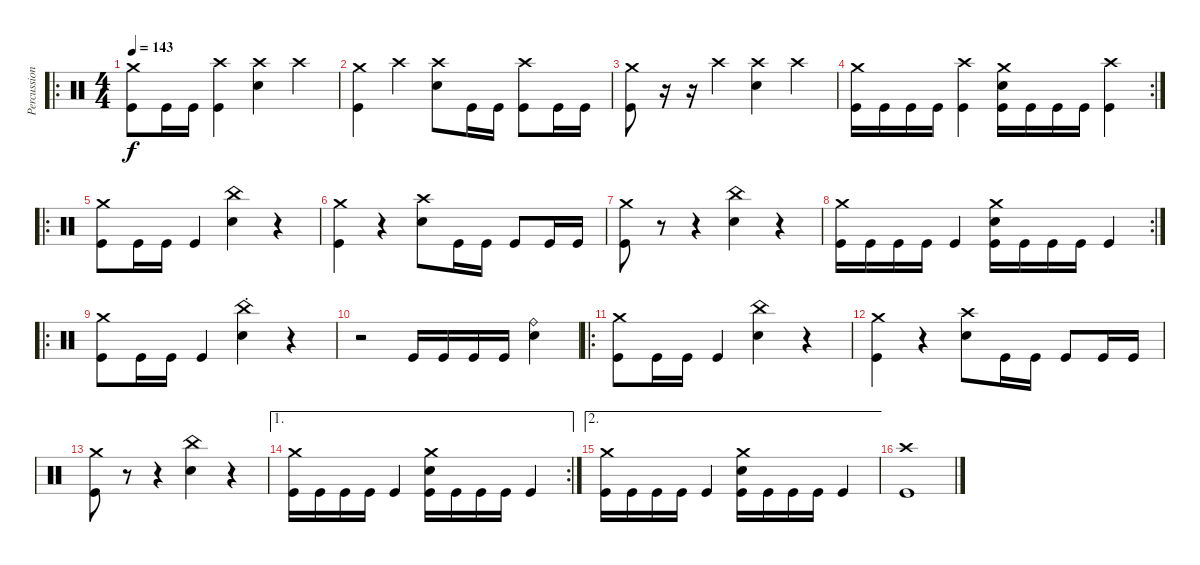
\track ("Percussion" "Percussion") {instrument percussion}
\staff {score}
\articulation defaults
\ro
\ts (4 4)
\tempo 143
\clef neutral
\ks c
("Crash medium (hit)" "Kick (hit)").8{dy f} "Kick (hit)".16 "Kick (hit)".16 ("Crash high (hit)" "Kick (hit)").4 ("Crash high (hit)" "Snare (hit) 2").4 "Crash high (hit)".4 |
("Crash medium (hit)" "Kick (hit)").4 "Crash high (hit)".4 ("Crash high (hit)" "Snare (hit) 2").8 "Kick (hit)".16 "Kick (hit)".16 ("Crash high (hit)" "Kick (hit)").8 "Kick (hit)".16 "Kick (hit)".16 |
("Crash medium (hit)" "Kick (hit)").8 r.16 r.16 "Crash high (hit)".4 ("Crash high (hit)" "Snare (hit) 2").4 "Crash high (hit)".4 |
\rc 2
("Crash medium (hit)" "Kick (hit)").16 "Kick (hit)".16 "Kick (hit)".16 "Kick (hit)".16 ("Crash high (hit)" "Kick (hit)").4 ("Crash medium (hit)" "Kick (hit)" "Snare (hit) 2").16 "Kick (hit)".16 "Kick (hit)".16 "Kick (hit)".16 ("Crash high (hit)" "Kick (hit)").4 |
\ro
("Crash medium (hit)" "Kick (hit)").8 "Kick (hit)".16 "Kick (hit)".16 "Kick (hit)".4 ("China (hit)" "Snare (hit) 2").4 r.4 |
("Crash medium (hit)" "Kick (hit)").4 r.4 ("Crash high (hit)" "Snare (hit) 2").8 "Kick (hit)".16 "Kick (hit)".16 "Kick (hit)".8 "Kick (hit)".16 "Kick (hit)".16 |
("Crash medium (hit)" "Kick (hit)").8 r.8 r.4 ("China (hit)" "Snare (hit) 2").4 r.4 |
\rc 2
("Crash medium (hit)" "Kick (hit)").16 "Kick (hit)".16 "Kick (hit)".16 "Kick (hit)".16 "Kick (hit)".4 ("Crash medium (hit)" "Kick (hit)" "Snare (hit) 2").16 "Kick (hit)".16 "Kick (hit)".16 "Kick (hit)".16 "Kick (hit)".4 |
\ro
("Crash medium (hit)" "Kick (hit)").8 "Kick (hit)".16 "Kick (hit)".16 "Kick (hit)".4 ("China (hit)"{st} "Snare (hit) 2").4 r.4 |
r.2 "Kick (hit)".16 "Kick (hit)".16 "Kick (hit)".16 "Kick (hit)".16 ("Snare (hit) 2" "Ride (bell)").4 |
\ro
("Crash medium (hit)" "Kick (hit)").8 "Kick (hit)".16 "Kick (hit)".16 "Kick (hit)".4 ("China (hit)" "Snare (hit) 2").4 r.4 |
("Crash medium (hit)" "Kick (hit)").4 r.4 ("Crash high (hit)" "Snare (hit) 2").8 "Kick (hit)".16 "Kick (hit)".16 "Kick (hit)".8 "Kick (hit)".16 "Kick (hit)".16 |
("Crash medium (hit)" "Kick (hit)").8 r.8 r.4 ("China (hit)" "Snare (hit) 2").4 r.4 |
\ae 1
\rc 2
("Crash medium (hit)" "Kick (hit)").16 "Kick (hit)".16 "Kick (hit)".16 "Kick (hit)".16 "Kick (hit)".4 ("Crash medium (hit)" "Kick (hit)" "Snare (hit) 2").16 "Kick (hit)".16 "Kick (hit)".16 "Kick (hit)".16 "Kick (hit)".4 |
\ae 2
("Crash medium (hit)" "Kick (hit)").16 "Kick (hit)".16 "Kick (hit)".16 "Kick (hit)".16 "Kick (hit)".4 ("Crash medium (hit)" "Kick (hit)" "Snare (hit) 2").16 "Kick (hit)".16 "Kick (hit)".16 "Kick (hit)".16 "Kick (hit)".4 |
("Crash high (hit)" "Kick (hit)").1
